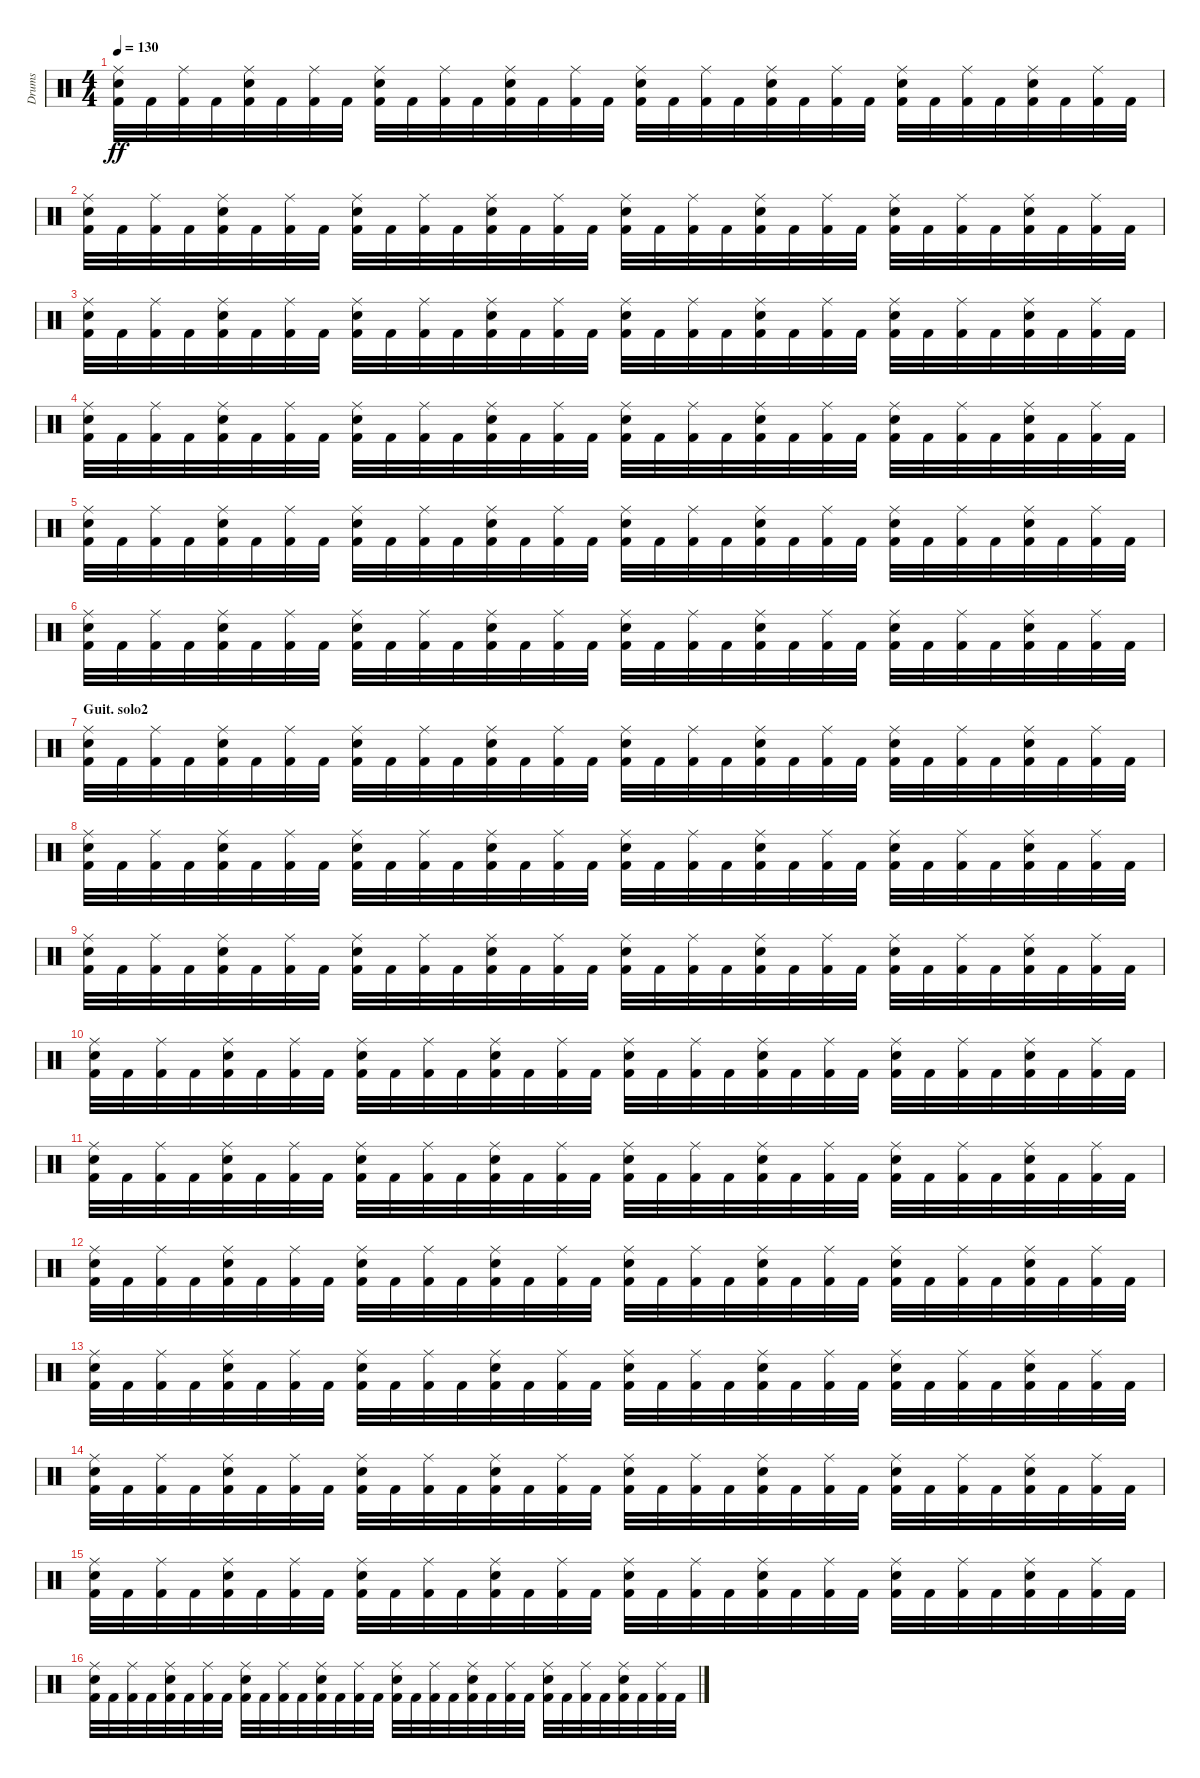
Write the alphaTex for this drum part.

\track ("Drums" "Drums") {instrument percussion}
\staff {score}
\articulation defaults
\ts (4 4)
\tempo 130
\clef neutral
\ks c
("Electric Snare (hit)" "Ride (middle)" "Kick (hit) 2").32{dy ff} "Kick (hit) 2".32 ("Ride (middle)" "Kick (hit) 2").32 "Kick (hit) 2".32 ("Electric Snare (hit)" "Ride (middle)" "Kick (hit) 2").32 "Kick (hit) 2".32 ("Ride (middle)" "Kick (hit) 2").32 "Kick (hit) 2".32 ("Electric Snare (hit)" "Ride (middle)" "Kick (hit) 2").32 "Kick (hit) 2".32 ("Ride (middle)" "Kick (hit) 2").32 "Kick (hit) 2".32 ("Electric Snare (hit)" "Ride (middle)" "Kick (hit) 2").32 "Kick (hit) 2".32 ("Ride (middle)" "Kick (hit) 2").32 "Kick (hit) 2".32 ("Electric Snare (hit)" "Ride (middle)" "Kick (hit) 2").32 "Kick (hit) 2".32 ("Ride (middle)" "Kick (hit) 2").32 "Kick (hit) 2".32 ("Electric Snare (hit)" "Ride (middle)" "Kick (hit) 2").32 "Kick (hit) 2".32 ("Ride (middle)" "Kick (hit) 2").32 "Kick (hit) 2".32 ("Electric Snare (hit)" "Ride (middle)" "Kick (hit) 2").32 "Kick (hit) 2".32 ("Ride (middle)" "Kick (hit) 2").32 "Kick (hit) 2".32 ("Electric Snare (hit)" "Ride (middle)" "Kick (hit) 2").32 "Kick (hit) 2".32 ("Ride (middle)" "Kick (hit) 2").32 "Kick (hit) 2".32 |
("Electric Snare (hit)" "Ride (middle)" "Kick (hit) 2").32 "Kick (hit) 2".32 ("Ride (middle)" "Kick (hit) 2").32 "Kick (hit) 2".32 ("Electric Snare (hit)" "Ride (middle)" "Kick (hit) 2").32 "Kick (hit) 2".32 ("Ride (middle)" "Kick (hit) 2").32 "Kick (hit) 2".32 ("Electric Snare (hit)" "Ride (middle)" "Kick (hit) 2").32 "Kick (hit) 2".32 ("Ride (middle)" "Kick (hit) 2").32 "Kick (hit) 2".32 ("Electric Snare (hit)" "Ride (middle)" "Kick (hit) 2").32 "Kick (hit) 2".32 ("Ride (middle)" "Kick (hit) 2").32 "Kick (hit) 2".32 ("Electric Snare (hit)" "Ride (middle)" "Kick (hit) 2").32 "Kick (hit) 2".32 ("Ride (middle)" "Kick (hit) 2").32 "Kick (hit) 2".32 ("Electric Snare (hit)" "Ride (middle)" "Kick (hit) 2").32 "Kick (hit) 2".32 ("Ride (middle)" "Kick (hit) 2").32 "Kick (hit) 2".32 ("Electric Snare (hit)" "Ride (middle)" "Kick (hit) 2").32 "Kick (hit) 2".32 ("Ride (middle)" "Kick (hit) 2").32 "Kick (hit) 2".32 ("Electric Snare (hit)" "Ride (middle)" "Kick (hit) 2").32 "Kick (hit) 2".32 ("Ride (middle)" "Kick (hit) 2").32 "Kick (hit) 2".32 |
("Electric Snare (hit)" "Ride (middle)" "Kick (hit) 2").32 "Kick (hit) 2".32 ("Ride (middle)" "Kick (hit) 2").32 "Kick (hit) 2".32 ("Electric Snare (hit)" "Ride (middle)" "Kick (hit) 2").32 "Kick (hit) 2".32 ("Ride (middle)" "Kick (hit) 2").32 "Kick (hit) 2".32 ("Electric Snare (hit)" "Ride (middle)" "Kick (hit) 2").32 "Kick (hit) 2".32 ("Ride (middle)" "Kick (hit) 2").32 "Kick (hit) 2".32 ("Electric Snare (hit)" "Ride (middle)" "Kick (hit) 2").32 "Kick (hit) 2".32 ("Ride (middle)" "Kick (hit) 2").32 "Kick (hit) 2".32 ("Electric Snare (hit)" "Ride (middle)" "Kick (hit) 2").32 "Kick (hit) 2".32 ("Ride (middle)" "Kick (hit) 2").32 "Kick (hit) 2".32 ("Electric Snare (hit)" "Ride (middle)" "Kick (hit) 2").32 "Kick (hit) 2".32 ("Ride (middle)" "Kick (hit) 2").32 "Kick (hit) 2".32 ("Electric Snare (hit)" "Ride (middle)" "Kick (hit) 2").32 "Kick (hit) 2".32 ("Ride (middle)" "Kick (hit) 2").32 "Kick (hit) 2".32 ("Electric Snare (hit)" "Ride (middle)" "Kick (hit) 2").32 "Kick (hit) 2".32 ("Ride (middle)" "Kick (hit) 2").32 "Kick (hit) 2".32 |
("Electric Snare (hit)" "Ride (middle)" "Kick (hit) 2").32 "Kick (hit) 2".32 ("Ride (middle)" "Kick (hit) 2").32 "Kick (hit) 2".32 ("Electric Snare (hit)" "Ride (middle)" "Kick (hit) 2").32 "Kick (hit) 2".32 ("Ride (middle)" "Kick (hit) 2").32 "Kick (hit) 2".32 ("Electric Snare (hit)" "Ride (middle)" "Kick (hit) 2").32 "Kick (hit) 2".32 ("Ride (middle)" "Kick (hit) 2").32 "Kick (hit) 2".32 ("Electric Snare (hit)" "Ride (middle)" "Kick (hit) 2").32 "Kick (hit) 2".32 ("Ride (middle)" "Kick (hit) 2").32 "Kick (hit) 2".32 ("Electric Snare (hit)" "Ride (middle)" "Kick (hit) 2").32 "Kick (hit) 2".32 ("Ride (middle)" "Kick (hit) 2").32 "Kick (hit) 2".32 ("Electric Snare (hit)" "Ride (middle)" "Kick (hit) 2").32 "Kick (hit) 2".32 ("Ride (middle)" "Kick (hit) 2").32 "Kick (hit) 2".32 ("Electric Snare (hit)" "Ride (middle)" "Kick (hit) 2").32 "Kick (hit) 2".32 ("Ride (middle)" "Kick (hit) 2").32 "Kick (hit) 2".32 ("Electric Snare (hit)" "Ride (middle)" "Kick (hit) 2").32 "Kick (hit) 2".32 ("Ride (middle)" "Kick (hit) 2").32 "Kick (hit) 2".32 |
("Electric Snare (hit)" "Ride (middle)" "Kick (hit) 2").32 "Kick (hit) 2".32 ("Ride (middle)" "Kick (hit) 2").32 "Kick (hit) 2".32 ("Electric Snare (hit)" "Ride (middle)" "Kick (hit) 2").32 "Kick (hit) 2".32 ("Ride (middle)" "Kick (hit) 2").32 "Kick (hit) 2".32 ("Electric Snare (hit)" "Ride (middle)" "Kick (hit) 2").32 "Kick (hit) 2".32 ("Ride (middle)" "Kick (hit) 2").32 "Kick (hit) 2".32 ("Electric Snare (hit)" "Ride (middle)" "Kick (hit) 2").32 "Kick (hit) 2".32 ("Ride (middle)" "Kick (hit) 2").32 "Kick (hit) 2".32 ("Electric Snare (hit)" "Ride (middle)" "Kick (hit) 2").32 "Kick (hit) 2".32 ("Ride (middle)" "Kick (hit) 2").32 "Kick (hit) 2".32 ("Electric Snare (hit)" "Ride (middle)" "Kick (hit) 2").32 "Kick (hit) 2".32 ("Ride (middle)" "Kick (hit) 2").32 "Kick (hit) 2".32 ("Electric Snare (hit)" "Ride (middle)" "Kick (hit) 2").32 "Kick (hit) 2".32 ("Ride (middle)" "Kick (hit) 2").32 "Kick (hit) 2".32 ("Electric Snare (hit)" "Ride (middle)" "Kick (hit) 2").32 "Kick (hit) 2".32 ("Ride (middle)" "Kick (hit) 2").32 "Kick (hit) 2".32 |
("Electric Snare (hit)" "Ride (middle)" "Kick (hit) 2").32 "Kick (hit) 2".32 ("Ride (middle)" "Kick (hit) 2").32 "Kick (hit) 2".32 ("Electric Snare (hit)" "Ride (middle)" "Kick (hit) 2").32 "Kick (hit) 2".32 ("Ride (middle)" "Kick (hit) 2").32 "Kick (hit) 2".32 ("Electric Snare (hit)" "Ride (middle)" "Kick (hit) 2").32 "Kick (hit) 2".32 ("Ride (middle)" "Kick (hit) 2").32 "Kick (hit) 2".32 ("Electric Snare (hit)" "Ride (middle)" "Kick (hit) 2").32 "Kick (hit) 2".32 ("Ride (middle)" "Kick (hit) 2").32 "Kick (hit) 2".32 ("Electric Snare (hit)" "Ride (middle)" "Kick (hit) 2").32 "Kick (hit) 2".32 ("Ride (middle)" "Kick (hit) 2").32 "Kick (hit) 2".32 ("Electric Snare (hit)" "Ride (middle)" "Kick (hit) 2").32 "Kick (hit) 2".32 ("Ride (middle)" "Kick (hit) 2").32 "Kick (hit) 2".32 ("Electric Snare (hit)" "Ride (middle)" "Kick (hit) 2").32 "Kick (hit) 2".32 ("Ride (middle)" "Kick (hit) 2").32 "Kick (hit) 2".32 ("Electric Snare (hit)" "Ride (middle)" "Kick (hit) 2").32 "Kick (hit) 2".32 ("Ride (middle)" "Kick (hit) 2").32 "Kick (hit) 2".32 |
\section ("" "Guit. solo2")
("Electric Snare (hit)" "Ride (middle)" "Kick (hit) 2").32 "Kick (hit) 2".32 ("Ride (middle)" "Kick (hit) 2").32 "Kick (hit) 2".32 ("Electric Snare (hit)" "Ride (middle)" "Kick (hit) 2").32 "Kick (hit) 2".32 ("Ride (middle)" "Kick (hit) 2").32 "Kick (hit) 2".32 ("Electric Snare (hit)" "Ride (middle)" "Kick (hit) 2").32 "Kick (hit) 2".32 ("Ride (middle)" "Kick (hit) 2").32 "Kick (hit) 2".32 ("Electric Snare (hit)" "Ride (middle)" "Kick (hit) 2").32 "Kick (hit) 2".32 ("Ride (middle)" "Kick (hit) 2").32 "Kick (hit) 2".32 ("Electric Snare (hit)" "Ride (middle)" "Kick (hit) 2").32 "Kick (hit) 2".32 ("Ride (middle)" "Kick (hit) 2").32 "Kick (hit) 2".32 ("Electric Snare (hit)" "Ride (middle)" "Kick (hit) 2").32 "Kick (hit) 2".32 ("Ride (middle)" "Kick (hit) 2").32 "Kick (hit) 2".32 ("Electric Snare (hit)" "Ride (middle)" "Kick (hit) 2").32 "Kick (hit) 2".32 ("Ride (middle)" "Kick (hit) 2").32 "Kick (hit) 2".32 ("Electric Snare (hit)" "Ride (middle)" "Kick (hit) 2").32 "Kick (hit) 2".32 ("Ride (middle)" "Kick (hit) 2").32 "Kick (hit) 2".32 |
("Electric Snare (hit)" "Ride (middle)" "Kick (hit) 2").32 "Kick (hit) 2".32 ("Ride (middle)" "Kick (hit) 2").32 "Kick (hit) 2".32 ("Electric Snare (hit)" "Ride (middle)" "Kick (hit) 2").32 "Kick (hit) 2".32 ("Ride (middle)" "Kick (hit) 2").32 "Kick (hit) 2".32 ("Electric Snare (hit)" "Ride (middle)" "Kick (hit) 2").32 "Kick (hit) 2".32 ("Ride (middle)" "Kick (hit) 2").32 "Kick (hit) 2".32 ("Electric Snare (hit)" "Ride (middle)" "Kick (hit) 2").32 "Kick (hit) 2".32 ("Ride (middle)" "Kick (hit) 2").32 "Kick (hit) 2".32 ("Electric Snare (hit)" "Ride (middle)" "Kick (hit) 2").32 "Kick (hit) 2".32 ("Ride (middle)" "Kick (hit) 2").32 "Kick (hit) 2".32 ("Electric Snare (hit)" "Ride (middle)" "Kick (hit) 2").32 "Kick (hit) 2".32 ("Ride (middle)" "Kick (hit) 2").32 "Kick (hit) 2".32 ("Electric Snare (hit)" "Ride (middle)" "Kick (hit) 2").32 "Kick (hit) 2".32 ("Ride (middle)" "Kick (hit) 2").32 "Kick (hit) 2".32 ("Electric Snare (hit)" "Ride (middle)" "Kick (hit) 2").32 "Kick (hit) 2".32 ("Ride (middle)" "Kick (hit) 2").32 "Kick (hit) 2".32 |
("Electric Snare (hit)" "Ride (middle)" "Kick (hit) 2").32 "Kick (hit) 2".32 ("Ride (middle)" "Kick (hit) 2").32 "Kick (hit) 2".32 ("Electric Snare (hit)" "Ride (middle)" "Kick (hit) 2").32 "Kick (hit) 2".32 ("Ride (middle)" "Kick (hit) 2").32 "Kick (hit) 2".32 ("Electric Snare (hit)" "Ride (middle)" "Kick (hit) 2").32 "Kick (hit) 2".32 ("Ride (middle)" "Kick (hit) 2").32 "Kick (hit) 2".32 ("Electric Snare (hit)" "Ride (middle)" "Kick (hit) 2").32 "Kick (hit) 2".32 ("Ride (middle)" "Kick (hit) 2").32 "Kick (hit) 2".32 ("Electric Snare (hit)" "Ride (middle)" "Kick (hit) 2").32 "Kick (hit) 2".32 ("Ride (middle)" "Kick (hit) 2").32 "Kick (hit) 2".32 ("Electric Snare (hit)" "Ride (middle)" "Kick (hit) 2").32 "Kick (hit) 2".32 ("Ride (middle)" "Kick (hit) 2").32 "Kick (hit) 2".32 ("Electric Snare (hit)" "Ride (middle)" "Kick (hit) 2").32 "Kick (hit) 2".32 ("Ride (middle)" "Kick (hit) 2").32 "Kick (hit) 2".32 ("Electric Snare (hit)" "Ride (middle)" "Kick (hit) 2").32 "Kick (hit) 2".32 ("Ride (middle)" "Kick (hit) 2").32 "Kick (hit) 2".32 |
("Electric Snare (hit)" "Ride (middle)" "Kick (hit) 2").32 "Kick (hit) 2".32 ("Ride (middle)" "Kick (hit) 2").32 "Kick (hit) 2".32 ("Electric Snare (hit)" "Ride (middle)" "Kick (hit) 2").32 "Kick (hit) 2".32 ("Ride (middle)" "Kick (hit) 2").32 "Kick (hit) 2".32 ("Electric Snare (hit)" "Ride (middle)" "Kick (hit) 2").32 "Kick (hit) 2".32 ("Ride (middle)" "Kick (hit) 2").32 "Kick (hit) 2".32 ("Electric Snare (hit)" "Ride (middle)" "Kick (hit) 2").32 "Kick (hit) 2".32 ("Ride (middle)" "Kick (hit) 2").32 "Kick (hit) 2".32 ("Electric Snare (hit)" "Ride (middle)" "Kick (hit) 2").32 "Kick (hit) 2".32 ("Ride (middle)" "Kick (hit) 2").32 "Kick (hit) 2".32 ("Electric Snare (hit)" "Ride (middle)" "Kick (hit) 2").32 "Kick (hit) 2".32 ("Ride (middle)" "Kick (hit) 2").32 "Kick (hit) 2".32 ("Electric Snare (hit)" "Ride (middle)" "Kick (hit) 2").32 "Kick (hit) 2".32 ("Ride (middle)" "Kick (hit) 2").32 "Kick (hit) 2".32 ("Electric Snare (hit)" "Ride (middle)" "Kick (hit) 2").32 "Kick (hit) 2".32 ("Ride (middle)" "Kick (hit) 2").32 "Kick (hit) 2".32 |
("Electric Snare (hit)" "Ride (middle)" "Kick (hit) 2").32 "Kick (hit) 2".32 ("Ride (middle)" "Kick (hit) 2").32 "Kick (hit) 2".32 ("Electric Snare (hit)" "Ride (middle)" "Kick (hit) 2").32 "Kick (hit) 2".32 ("Ride (middle)" "Kick (hit) 2").32 "Kick (hit) 2".32 ("Electric Snare (hit)" "Ride (middle)" "Kick (hit) 2").32 "Kick (hit) 2".32 ("Ride (middle)" "Kick (hit) 2").32 "Kick (hit) 2".32 ("Electric Snare (hit)" "Ride (middle)" "Kick (hit) 2").32 "Kick (hit) 2".32 ("Ride (middle)" "Kick (hit) 2").32 "Kick (hit) 2".32 ("Electric Snare (hit)" "Ride (middle)" "Kick (hit) 2").32 "Kick (hit) 2".32 ("Ride (middle)" "Kick (hit) 2").32 "Kick (hit) 2".32 ("Electric Snare (hit)" "Ride (middle)" "Kick (hit) 2").32 "Kick (hit) 2".32 ("Ride (middle)" "Kick (hit) 2").32 "Kick (hit) 2".32 ("Electric Snare (hit)" "Ride (middle)" "Kick (hit) 2").32 "Kick (hit) 2".32 ("Ride (middle)" "Kick (hit) 2").32 "Kick (hit) 2".32 ("Electric Snare (hit)" "Ride (middle)" "Kick (hit) 2").32 "Kick (hit) 2".32 ("Ride (middle)" "Kick (hit) 2").32 "Kick (hit) 2".32 |
("Electric Snare (hit)" "Ride (middle)" "Kick (hit) 2").32 "Kick (hit) 2".32 ("Ride (middle)" "Kick (hit) 2").32 "Kick (hit) 2".32 ("Electric Snare (hit)" "Ride (middle)" "Kick (hit) 2").32 "Kick (hit) 2".32 ("Ride (middle)" "Kick (hit) 2").32 "Kick (hit) 2".32 ("Electric Snare (hit)" "Ride (middle)" "Kick (hit) 2").32 "Kick (hit) 2".32 ("Ride (middle)" "Kick (hit) 2").32 "Kick (hit) 2".32 ("Electric Snare (hit)" "Ride (middle)" "Kick (hit) 2").32 "Kick (hit) 2".32 ("Ride (middle)" "Kick (hit) 2").32 "Kick (hit) 2".32 ("Electric Snare (hit)" "Ride (middle)" "Kick (hit) 2").32 "Kick (hit) 2".32 ("Ride (middle)" "Kick (hit) 2").32 "Kick (hit) 2".32 ("Electric Snare (hit)" "Ride (middle)" "Kick (hit) 2").32 "Kick (hit) 2".32 ("Ride (middle)" "Kick (hit) 2").32 "Kick (hit) 2".32 ("Electric Snare (hit)" "Ride (middle)" "Kick (hit) 2").32 "Kick (hit) 2".32 ("Ride (middle)" "Kick (hit) 2").32 "Kick (hit) 2".32 ("Electric Snare (hit)" "Ride (middle)" "Kick (hit) 2").32 "Kick (hit) 2".32 ("Ride (middle)" "Kick (hit) 2").32 "Kick (hit) 2".32 |
("Electric Snare (hit)" "Ride (middle)" "Kick (hit) 2").32 "Kick (hit) 2".32 ("Ride (middle)" "Kick (hit) 2").32 "Kick (hit) 2".32 ("Electric Snare (hit)" "Ride (middle)" "Kick (hit) 2").32 "Kick (hit) 2".32 ("Ride (middle)" "Kick (hit) 2").32 "Kick (hit) 2".32 ("Electric Snare (hit)" "Ride (middle)" "Kick (hit) 2").32 "Kick (hit) 2".32 ("Ride (middle)" "Kick (hit) 2").32 "Kick (hit) 2".32 ("Electric Snare (hit)" "Ride (middle)" "Kick (hit) 2").32 "Kick (hit) 2".32 ("Ride (middle)" "Kick (hit) 2").32 "Kick (hit) 2".32 ("Electric Snare (hit)" "Ride (middle)" "Kick (hit) 2").32 "Kick (hit) 2".32 ("Ride (middle)" "Kick (hit) 2").32 "Kick (hit) 2".32 ("Electric Snare (hit)" "Ride (middle)" "Kick (hit) 2").32 "Kick (hit) 2".32 ("Ride (middle)" "Kick (hit) 2").32 "Kick (hit) 2".32 ("Electric Snare (hit)" "Ride (middle)" "Kick (hit) 2").32 "Kick (hit) 2".32 ("Ride (middle)" "Kick (hit) 2").32 "Kick (hit) 2".32 ("Electric Snare (hit)" "Ride (middle)" "Kick (hit) 2").32 "Kick (hit) 2".32 ("Ride (middle)" "Kick (hit) 2").32 "Kick (hit) 2".32 |
("Electric Snare (hit)" "Ride (middle)" "Kick (hit) 2").32 "Kick (hit) 2".32 ("Ride (middle)" "Kick (hit) 2").32 "Kick (hit) 2".32 ("Electric Snare (hit)" "Ride (middle)" "Kick (hit) 2").32 "Kick (hit) 2".32 ("Ride (middle)" "Kick (hit) 2").32 "Kick (hit) 2".32 ("Electric Snare (hit)" "Ride (middle)" "Kick (hit) 2").32 "Kick (hit) 2".32 ("Ride (middle)" "Kick (hit) 2").32 "Kick (hit) 2".32 ("Electric Snare (hit)" "Ride (middle)" "Kick (hit) 2").32 "Kick (hit) 2".32 ("Ride (middle)" "Kick (hit) 2").32 "Kick (hit) 2".32 ("Electric Snare (hit)" "Ride (middle)" "Kick (hit) 2").32 "Kick (hit) 2".32 ("Ride (middle)" "Kick (hit) 2").32 "Kick (hit) 2".32 ("Electric Snare (hit)" "Ride (middle)" "Kick (hit) 2").32 "Kick (hit) 2".32 ("Ride (middle)" "Kick (hit) 2").32 "Kick (hit) 2".32 ("Electric Snare (hit)" "Ride (middle)" "Kick (hit) 2").32 "Kick (hit) 2".32 ("Ride (middle)" "Kick (hit) 2").32 "Kick (hit) 2".32 ("Electric Snare (hit)" "Ride (middle)" "Kick (hit) 2").32 "Kick (hit) 2".32 ("Ride (middle)" "Kick (hit) 2").32 "Kick (hit) 2".32 |
("Electric Snare (hit)" "Ride (middle)" "Kick (hit) 2").32 "Kick (hit) 2".32 ("Ride (middle)" "Kick (hit) 2").32 "Kick (hit) 2".32 ("Electric Snare (hit)" "Ride (middle)" "Kick (hit) 2").32 "Kick (hit) 2".32 ("Ride (middle)" "Kick (hit) 2").32 "Kick (hit) 2".32 ("Electric Snare (hit)" "Ride (middle)" "Kick (hit) 2").32 "Kick (hit) 2".32 ("Ride (middle)" "Kick (hit) 2").32 "Kick (hit) 2".32 ("Electric Snare (hit)" "Ride (middle)" "Kick (hit) 2").32 "Kick (hit) 2".32 ("Ride (middle)" "Kick (hit) 2").32 "Kick (hit) 2".32 ("Electric Snare (hit)" "Ride (middle)" "Kick (hit) 2").32 "Kick (hit) 2".32 ("Ride (middle)" "Kick (hit) 2").32 "Kick (hit) 2".32 ("Electric Snare (hit)" "Ride (middle)" "Kick (hit) 2").32 "Kick (hit) 2".32 ("Ride (middle)" "Kick (hit) 2").32 "Kick (hit) 2".32 ("Electric Snare (hit)" "Ride (middle)" "Kick (hit) 2").32 "Kick (hit) 2".32 ("Ride (middle)" "Kick (hit) 2").32 "Kick (hit) 2".32 ("Electric Snare (hit)" "Ride (middle)" "Kick (hit) 2").32 "Kick (hit) 2".32 ("Ride (middle)" "Kick (hit) 2").32 "Kick (hit) 2".32 |
("Electric Snare (hit)" "Ride (middle)" "Kick (hit) 2").32 "Kick (hit) 2".32 ("Ride (middle)" "Kick (hit) 2").32 "Kick (hit) 2".32 ("Electric Snare (hit)" "Ride (middle)" "Kick (hit) 2").32 "Kick (hit) 2".32 ("Ride (middle)" "Kick (hit) 2").32 "Kick (hit) 2".32 ("Electric Snare (hit)" "Ride (middle)" "Kick (hit) 2").32 "Kick (hit) 2".32 ("Ride (middle)" "Kick (hit) 2").32 "Kick (hit) 2".32 ("Electric Snare (hit)" "Ride (middle)" "Kick (hit) 2").32 "Kick (hit) 2".32 ("Ride (middle)" "Kick (hit) 2").32 "Kick (hit) 2".32 ("Electric Snare (hit)" "Ride (middle)" "Kick (hit) 2").32 "Kick (hit) 2".32 ("Ride (middle)" "Kick (hit) 2").32 "Kick (hit) 2".32 ("Electric Snare (hit)" "Ride (middle)" "Kick (hit) 2").32 "Kick (hit) 2".32 ("Ride (middle)" "Kick (hit) 2").32 "Kick (hit) 2".32 ("Electric Snare (hit)" "Ride (middle)" "Kick (hit) 2").32 "Kick (hit) 2".32 ("Ride (middle)" "Kick (hit) 2").32 "Kick (hit) 2".32 ("Electric Snare (hit)" "Ride (middle)" "Kick (hit) 2").32 "Kick (hit) 2".32 ("Ride (middle)" "Kick (hit) 2").32 "Kick (hit) 2".32
